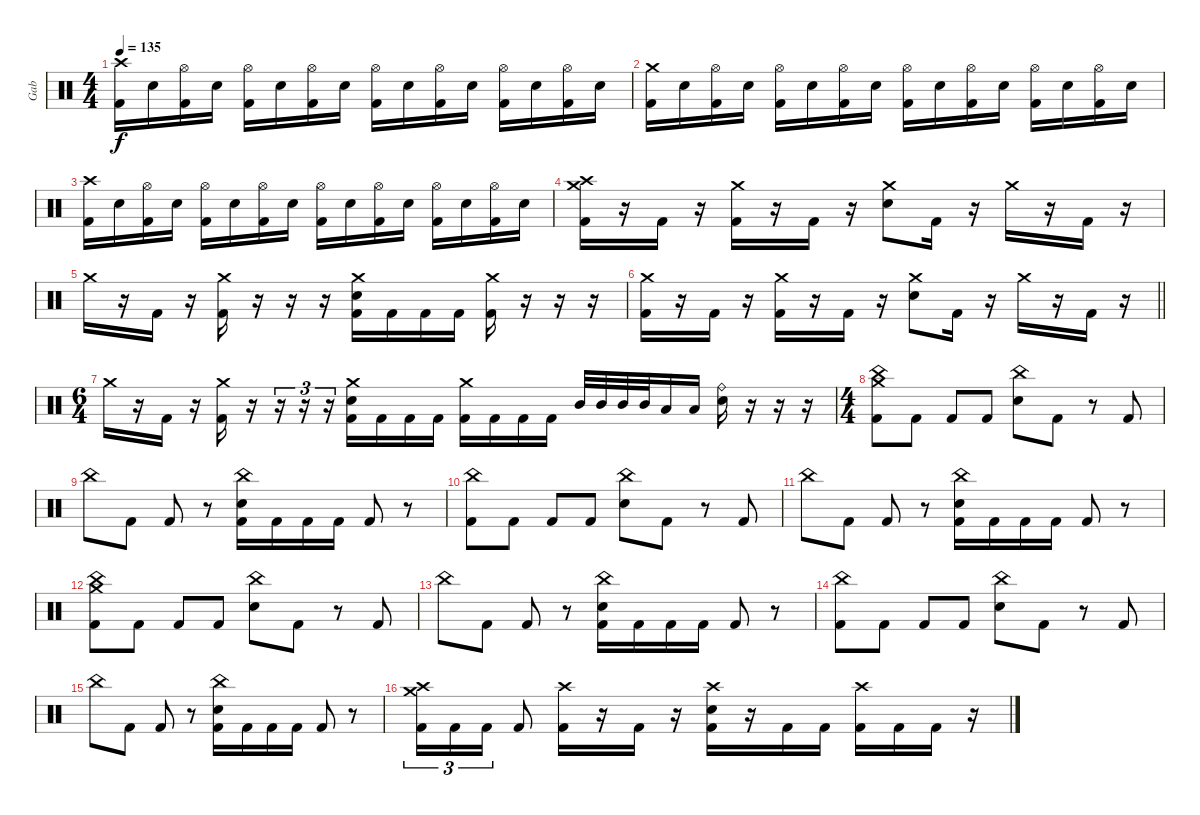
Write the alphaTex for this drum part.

\track ("Gab" "Gab") {instrument percussion}
\staff {score}
\articulation defaults
\ts (4 4)
\tempo 135
\clef neutral
\ks c
("Crash high (hit)" "Kick (hit) 2").16{dy f} "Electric Snare (hit)".16 ("Hi-Hat (open)" "Kick (hit) 2").16 "Electric Snare (hit)".16 ("Hi-Hat (open)" "Kick (hit) 2").16 "Electric Snare (hit)".16 ("Hi-Hat (open)" "Kick (hit) 2").16 "Electric Snare (hit)".16 ("Hi-Hat (open)" "Kick (hit) 2").16 "Electric Snare (hit)".16 ("Hi-Hat (open)" "Kick (hit) 2").16 "Electric Snare (hit)".16 ("Hi-Hat (open)" "Kick (hit) 2").16 "Electric Snare (hit)".16 ("Hi-Hat (open)" "Kick (hit) 2").16 "Electric Snare (hit)".16 |
("Crash medium (hit)" "Kick (hit) 2").16 "Electric Snare (hit)".16 ("Hi-Hat (open)" "Kick (hit) 2").16 "Electric Snare (hit)".16 ("Hi-Hat (open)" "Kick (hit) 2").16 "Electric Snare (hit)".16 ("Hi-Hat (open)" "Kick (hit) 2").16 "Electric Snare (hit)".16 ("Hi-Hat (open)" "Kick (hit) 2").16 "Electric Snare (hit)".16 ("Hi-Hat (open)" "Kick (hit) 2").16 "Electric Snare (hit)".16 ("Hi-Hat (open)" "Kick (hit) 2").16 "Electric Snare (hit)".16 ("Hi-Hat (open)" "Kick (hit) 2").16 "Electric Snare (hit)".16 |
("Crash high (hit)" "Kick (hit) 2").16 "Electric Snare (hit)".16 ("Hi-Hat (open)" "Kick (hit) 2").16 "Electric Snare (hit)".16 ("Hi-Hat (open)" "Kick (hit) 2").16 "Electric Snare (hit)".16 ("Hi-Hat (open)" "Kick (hit) 2").16 "Electric Snare (hit)".16 ("Hi-Hat (open)" "Kick (hit) 2").16 "Electric Snare (hit)".16 ("Hi-Hat (open)" "Kick (hit) 2").16 "Electric Snare (hit)".16 ("Hi-Hat (open)" "Kick (hit) 2").16 "Electric Snare (hit)".16 ("Hi-Hat (open)" "Kick (hit) 2").16 "Electric Snare (hit)".16 |
("Crash medium (hit)" "Crash high (hit)" "Kick (hit) 2").16 r.16 "Kick (hit) 2".16 r.16 ("Crash medium (hit)" "Kick (hit) 2").16 r.16 "Kick (hit) 2".16 r.16 ("Crash medium (hit)" "Electric Snare (hit)").8 "Kick (hit) 2".16 r.16 "Crash medium (hit)".16 r.16 "Kick (hit) 2".16 r.16 |
"Crash medium (hit)".16 r.16 "Kick (hit) 2".16 r.16 ("Crash medium (hit)" "Kick (hit) 2").16 r.16 r.16 r.16 ("Crash medium (hit)" "Electric Snare (hit)" "Kick (hit) 2").16 "Kick (hit) 2".16 "Kick (hit) 2".16 "Kick (hit) 2".16 ("Crash medium (hit)" "Kick (hit) 2").16 r.16 r.16 r.16 |
\barLineRight lightlight
("Crash medium (hit)" "Kick (hit) 2").16 r.16 "Kick (hit) 2".16 r.16 ("Crash medium (hit)" "Kick (hit) 2").16 r.16 "Kick (hit) 2".16 r.16 ("Crash medium (hit)" "Electric Snare (hit)").8 "Kick (hit) 2".16 r.16 "Crash medium (hit)".16 r.16 "Kick (hit) 2".16 r.16 |
\ts (6 4)
\section ("" "")
"Crash medium (hit)".16 r.16 "Kick (hit) 2".16 r.16 ("Crash medium (hit)" "Kick (hit) 2").16 r.16 r.16{tu (3 2)} r.16{tu (3 2)} r.16{tu (3 2)} ("Crash medium (hit)" "Electric Snare (hit)" "Kick (hit) 2").16 "Kick (hit) 2".16 "Kick (hit) 2".16 "Kick (hit) 2".16 ("Crash medium (hit)" "Kick (hit) 2").16 "Kick (hit) 2".16 "Kick (hit) 2".16 "Kick (hit) 2".16 "Mid Tom (hit)".32 "Mid Tom (hit)".32 "Mid Tom (hit)".32 "Mid Tom (hit)".32 "Low Tom (hit)".16 "Low Tom (hit)".16 ("Ride (bell)" "Electric Snare (hit)").16 r.16 r.16 r.16 |
\ts (4 4)
("Crash medium (hit)" "China (hit)" "Kick (hit) 2").8 "Kick (hit) 2".8 "Kick (hit) 2".8 "Kick (hit) 2".8 ("China (hit)" "Electric Snare (hit)").8 "Kick (hit) 2".8 r.8 "Kick (hit) 2".8 |
"China (hit)".8 "Kick (hit) 2".8 "Kick (hit) 2".8 r.8 ("China (hit)" "Electric Snare (hit)" "Kick (hit) 2").16 "Kick (hit) 2".16 "Kick (hit) 2".16 "Kick (hit) 2".16 "Kick (hit) 2".8 r.8 |
("China (hit)" "Kick (hit) 2").8 "Kick (hit) 2".8 "Kick (hit) 2".8 "Kick (hit) 2".8 ("China (hit)" "Electric Snare (hit)").8 "Kick (hit) 2".8 r.8 "Kick (hit) 2".8 |
"China (hit)".8 "Kick (hit) 2".8 "Kick (hit) 2".8 r.8 ("China (hit)" "Electric Snare (hit)" "Kick (hit) 2").16 "Kick (hit) 2".16 "Kick (hit) 2".16 "Kick (hit) 2".16 "Kick (hit) 2".8 r.8 |
("Crash medium (hit)" "China (hit)" "Kick (hit) 2").8 "Kick (hit) 2".8 "Kick (hit) 2".8 "Kick (hit) 2".8 ("China (hit)" "Electric Snare (hit)").8 "Kick (hit) 2".8 r.8 "Kick (hit) 2".8 |
"China (hit)".8 "Kick (hit) 2".8 "Kick (hit) 2".8 r.8 ("China (hit)" "Electric Snare (hit)" "Kick (hit) 2").16 "Kick (hit) 2".16 "Kick (hit) 2".16 "Kick (hit) 2".16 "Kick (hit) 2".8 r.8 |
("China (hit)" "Kick (hit) 2").8 "Kick (hit) 2".8 "Kick (hit) 2".8 "Kick (hit) 2".8 ("China (hit)" "Electric Snare (hit)").8 "Kick (hit) 2".8 r.8 "Kick (hit) 2".8 |
"China (hit)".8 "Kick (hit) 2".8 "Kick (hit) 2".8 r.8 ("China (hit)" "Electric Snare (hit)" "Kick (hit) 2").16 "Kick (hit) 2".16 "Kick (hit) 2".16 "Kick (hit) 2".16 "Kick (hit) 2".8 r.8 |
("Crash medium (hit)" "Crash high (hit)" "Kick (hit) 2").16{tu (3 2)} "Kick (hit) 2".16{tu (3 2)} "Kick (hit) 2".16{tu (3 2)} "Kick (hit) 2".8 ("Crash high (hit)" "Kick (hit) 2").16 r.16 "Kick (hit) 2".16 r.16 ("Crash high (hit)" "Electric Snare (hit)" "Kick (hit) 2").16 r.16 "Kick (hit) 2".16 "Kick (hit) 2".16 ("Crash high (hit)" "Kick (hit) 2").16 "Kick (hit) 2".16 "Kick (hit) 2".16 r.16
